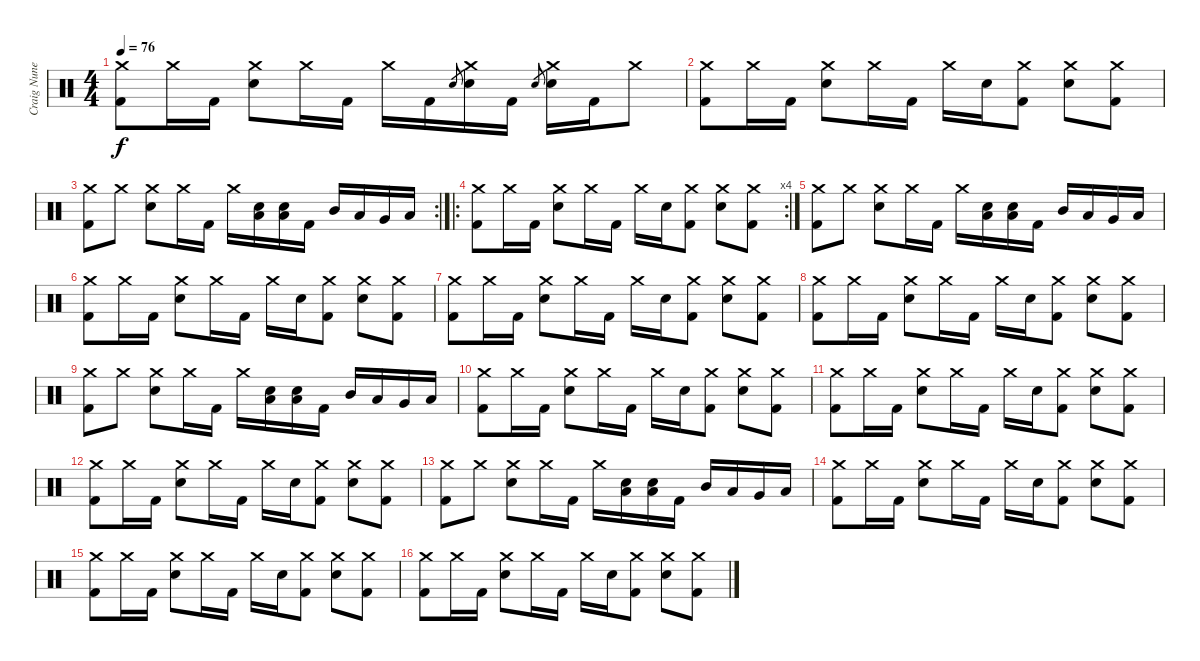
\track ("Craig Nunenmacher" "Craig Nune") {instrument percussion}
\staff {score}
\articulation defaults
\ts (4 4)
\tempo 76
\clef neutral
\ks c
("Crash medium (hit)" "Kick (hit) 2").8{dy f} "Crash medium (hit)".16 "Kick (hit) 2".16 ("Crash medium (hit)" "Snare (hit) 2").8 "Crash medium (hit)".16 "Kick (hit) 2".16 "Crash medium (hit)".16 "Kick (hit) 2".16 "Snare (hit) 2".8{gr} ("Crash medium (hit)" "Snare (hit) 2").16 "Kick (hit) 2".16 "Snare (hit) 2".8{gr} ("Crash medium (hit)" "Snare (hit) 2").16 "Kick (hit) 2".16 "Crash medium (hit)".8 |
("Crash medium (hit)" "Kick (hit) 2").8 "Crash medium (hit)".16 "Kick (hit) 2".16 ("Crash medium (hit)" "Snare (hit) 2").8 "Crash medium (hit)".16 "Kick (hit) 2".16 "Crash medium (hit)".16 "Snare (hit) 2".16 ("Crash medium (hit)" "Kick (hit) 2").8 ("Crash medium (hit)" "Snare (hit) 2").8 ("Crash medium (hit)" "Kick (hit) 2").8 |
\rc 2
("Crash medium (hit)" "Kick (hit) 2").8 "Crash medium (hit)".8 ("Crash medium (hit)" "Snare (hit) 2").8 "Crash medium (hit)".16 "Kick (hit) 2".16 "Crash medium (hit)".16 ("Snare (hit) 2" "Low Tom (hit)").16 ("Snare (hit) 2" "Low Tom (hit)").16 "Kick (hit) 2".16 "Mid Tom (hit)".16 "Low Tom (hit)".16 "Very Low Tom (hit)".16 "Low Floor Tom (hit)".16 |
\ro
\rc 4
("Crash medium (hit)" "Kick (hit) 2").8 "Crash medium (hit)".16 "Kick (hit) 2".16 ("Crash medium (hit)" "Snare (hit) 2").8 "Crash medium (hit)".16 "Kick (hit) 2".16 "Crash medium (hit)".16 "Snare (hit) 2".16 ("Crash medium (hit)" "Kick (hit) 2").8 ("Crash medium (hit)" "Snare (hit) 2").8 ("Crash medium (hit)" "Kick (hit) 2").8 |
("Crash medium (hit)" "Kick (hit) 2").8 "Crash medium (hit)".8 ("Crash medium (hit)" "Snare (hit) 2").8 "Crash medium (hit)".16 "Kick (hit) 2".16 "Crash medium (hit)".16 ("Snare (hit) 2" "Low Tom (hit)").16 ("Snare (hit) 2" "Low Tom (hit)").16 "Kick (hit) 2".16 "Mid Tom (hit)".16 "Low Tom (hit)".16 "Very Low Tom (hit)".16 "Low Floor Tom (hit)".16 |
("Crash medium (hit)" "Kick (hit) 2").8 "Crash medium (hit)".16 "Kick (hit) 2".16 ("Crash medium (hit)" "Snare (hit) 2").8 "Crash medium (hit)".16 "Kick (hit) 2".16 "Crash medium (hit)".16 "Snare (hit) 2".16 ("Crash medium (hit)" "Kick (hit) 2").8 ("Crash medium (hit)" "Snare (hit) 2").8 ("Crash medium (hit)" "Kick (hit) 2").8 |
("Crash medium (hit)" "Kick (hit) 2").8 "Crash medium (hit)".16 "Kick (hit) 2".16 ("Crash medium (hit)" "Snare (hit) 2").8 "Crash medium (hit)".16 "Kick (hit) 2".16 "Crash medium (hit)".16 "Snare (hit) 2".16 ("Crash medium (hit)" "Kick (hit) 2").8 ("Crash medium (hit)" "Snare (hit) 2").8 ("Crash medium (hit)" "Kick (hit) 2").8 |
("Crash medium (hit)" "Kick (hit) 2").8 "Crash medium (hit)".16 "Kick (hit) 2".16 ("Crash medium (hit)" "Snare (hit) 2").8 "Crash medium (hit)".16 "Kick (hit) 2".16 "Crash medium (hit)".16 "Snare (hit) 2".16 ("Crash medium (hit)" "Kick (hit) 2").8 ("Crash medium (hit)" "Snare (hit) 2").8 ("Crash medium (hit)" "Kick (hit) 2").8 |
("Crash medium (hit)" "Kick (hit) 2").8 "Crash medium (hit)".8 ("Crash medium (hit)" "Snare (hit) 2").8 "Crash medium (hit)".16 "Kick (hit) 2".16 "Crash medium (hit)".16 ("Snare (hit) 2" "Low Tom (hit)").16 ("Snare (hit) 2" "Low Tom (hit)").16 "Kick (hit) 2".16 "Mid Tom (hit)".16 "Low Tom (hit)".16 "Very Low Tom (hit)".16 "Low Floor Tom (hit)".16 |
("Crash medium (hit)" "Kick (hit) 2").8 "Crash medium (hit)".16 "Kick (hit) 2".16 ("Crash medium (hit)" "Snare (hit) 2").8 "Crash medium (hit)".16 "Kick (hit) 2".16 "Crash medium (hit)".16 "Snare (hit) 2".16 ("Crash medium (hit)" "Kick (hit) 2").8 ("Crash medium (hit)" "Snare (hit) 2").8 ("Crash medium (hit)" "Kick (hit) 2").8 |
("Crash medium (hit)" "Kick (hit) 2").8 "Crash medium (hit)".16 "Kick (hit) 2".16 ("Crash medium (hit)" "Snare (hit) 2").8 "Crash medium (hit)".16 "Kick (hit) 2".16 "Crash medium (hit)".16 "Snare (hit) 2".16 ("Crash medium (hit)" "Kick (hit) 2").8 ("Crash medium (hit)" "Snare (hit) 2").8 ("Crash medium (hit)" "Kick (hit) 2").8 |
("Crash medium (hit)" "Kick (hit) 2").8 "Crash medium (hit)".16 "Kick (hit) 2".16 ("Crash medium (hit)" "Snare (hit) 2").8 "Crash medium (hit)".16 "Kick (hit) 2".16 "Crash medium (hit)".16 "Snare (hit) 2".16 ("Crash medium (hit)" "Kick (hit) 2").8 ("Crash medium (hit)" "Snare (hit) 2").8 ("Crash medium (hit)" "Kick (hit) 2").8 |
("Crash medium (hit)" "Kick (hit) 2").8 "Crash medium (hit)".8 ("Crash medium (hit)" "Snare (hit) 2").8 "Crash medium (hit)".16 "Kick (hit) 2".16 "Crash medium (hit)".16 ("Snare (hit) 2" "Low Tom (hit)").16 ("Snare (hit) 2" "Low Tom (hit)").16 "Kick (hit) 2".16 "Mid Tom (hit)".16 "Low Tom (hit)".16 "Very Low Tom (hit)".16 "Low Floor Tom (hit)".16 |
("Crash medium (hit)" "Kick (hit) 2").8 "Crash medium (hit)".16 "Kick (hit) 2".16 ("Crash medium (hit)" "Snare (hit) 2").8 "Crash medium (hit)".16 "Kick (hit) 2".16 "Crash medium (hit)".16 "Snare (hit) 2".16 ("Crash medium (hit)" "Kick (hit) 2").8 ("Crash medium (hit)" "Snare (hit) 2").8 ("Crash medium (hit)" "Kick (hit) 2").8 |
("Crash medium (hit)" "Kick (hit) 2").8 "Crash medium (hit)".16 "Kick (hit) 2".16 ("Crash medium (hit)" "Snare (hit) 2").8 "Crash medium (hit)".16 "Kick (hit) 2".16 "Crash medium (hit)".16 "Snare (hit) 2".16 ("Crash medium (hit)" "Kick (hit) 2").8 ("Crash medium (hit)" "Snare (hit) 2").8 ("Crash medium (hit)" "Kick (hit) 2").8 |
("Crash medium (hit)" "Kick (hit) 2").8 "Crash medium (hit)".16 "Kick (hit) 2".16 ("Crash medium (hit)" "Snare (hit) 2").8 "Crash medium (hit)".16 "Kick (hit) 2".16 "Crash medium (hit)".16 "Snare (hit) 2".16 ("Crash medium (hit)" "Kick (hit) 2").8 ("Crash medium (hit)" "Snare (hit) 2").8 ("Crash medium (hit)" "Kick (hit) 2").8
